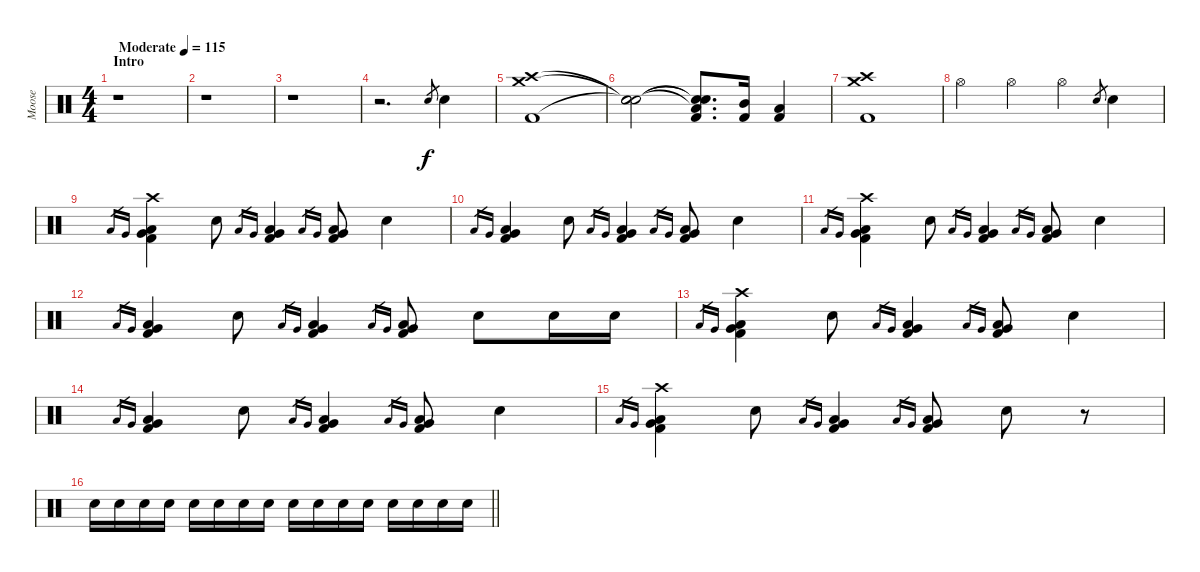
\track ("Moose" "Moose") {instrument percussion}
\staff {score}
\articulation defaults
\ts (4 4)
\section ("" "Intro")
\tempo (115 "Moderate")
\clef neutral
\ks c
r.1{dy f} |
r.1 |
r.1 |
r.2{d} "Electric Snare (hit)".8{gr} "Electric Snare (hit)".4 |
("Crash medium (hit)" "Crash high (hit)" "Kick (hit) 2").1 |
("Snare (hit)"{t} "Snare (hit)"{t} "Snare (hit)"{t}).2 ("Snare (hit)"{t} "Snare (hit)"{t} "Low Tom (hit)"{t} "Kick (hit) 2").8{d} ("Mid Tom (hit)" "Kick (hit) 2").16 ("Low Tom (hit)" "Kick (hit) 2").4 |
("Crash medium (hit)" "Crash high (hit)" "Kick (hit) 2").1 |
"Hi-Hat (open)".4 "Hi-Hat (open)".4 "Hi-Hat (open)".4 "Electric Snare (hit)".8{gr} "Electric Snare (hit)".4 |
"Low Tom (hit)".16{gr} "Very Low Tom (hit)".16{gr} ("Crash high (hit)" "Low Tom (hit)" "Very Low Tom (hit)" "Kick (hit) 2").4 "Electric Snare (hit)".8 "Low Tom (hit)".16{gr} "Very Low Tom (hit)".16{gr} ("Low Tom (hit)" "Very Low Tom (hit)" "Kick (hit) 2").4 "Low Tom (hit)".16{gr} "Very Low Tom (hit)".16{gr} ("Low Tom (hit)" "Very Low Tom (hit)" "Kick (hit) 2").8 "Electric Snare (hit)".4 |
"Low Tom (hit)".16{gr} "Very Low Tom (hit)".16{gr} ("Low Tom (hit)" "Very Low Tom (hit)" "Kick (hit) 2").4 "Electric Snare (hit)".8 "Low Tom (hit)".16{gr} "Very Low Tom (hit)".16{gr} ("Low Tom (hit)" "Very Low Tom (hit)" "Kick (hit) 2").4 "Low Tom (hit)".16{gr} "Very Low Tom (hit)".16{gr} ("Low Tom (hit)" "Very Low Tom (hit)" "Kick (hit) 2").8 "Electric Snare (hit)".4 |
"Low Tom (hit)".16{gr} "Very Low Tom (hit)".16{gr} ("Crash high (hit)" "Low Tom (hit)" "Very Low Tom (hit)" "Kick (hit) 2").4 "Electric Snare (hit)".8 "Low Tom (hit)".16{gr} "Very Low Tom (hit)".16{gr} ("Low Tom (hit)" "Very Low Tom (hit)" "Kick (hit) 2").4 "Low Tom (hit)".16{gr} "Very Low Tom (hit)".16{gr} ("Low Tom (hit)" "Very Low Tom (hit)" "Kick (hit) 2").8 "Electric Snare (hit)".4 |
"Low Tom (hit)".16{gr} "Very Low Tom (hit)".16{gr} ("Low Tom (hit)" "Very Low Tom (hit)" "Kick (hit) 2").4 "Electric Snare (hit)".8 "Low Tom (hit)".16{gr} "Very Low Tom (hit)".16{gr} ("Low Tom (hit)" "Very Low Tom (hit)" "Kick (hit) 2").4 "Low Tom (hit)".16{gr} "Very Low Tom (hit)".16{gr} ("Low Tom (hit)" "Very Low Tom (hit)" "Kick (hit) 2").8 "Electric Snare (hit)".8 "Electric Snare (hit)".16 "Electric Snare (hit)".16 |
"Low Tom (hit)".16{gr} "Very Low Tom (hit)".16{gr} ("Crash high (hit)" "Low Tom (hit)" "Very Low Tom (hit)" "Kick (hit) 2").4 "Electric Snare (hit)".8 "Low Tom (hit)".16{gr} "Very Low Tom (hit)".16{gr} ("Low Tom (hit)" "Very Low Tom (hit)" "Kick (hit) 2").4 "Low Tom (hit)".16{gr} "Very Low Tom (hit)".16{gr} ("Low Tom (hit)" "Very Low Tom (hit)" "Kick (hit) 2").8 "Electric Snare (hit)".4 |
"Low Tom (hit)".16{gr} "Very Low Tom (hit)".16{gr} ("Low Tom (hit)" "Very Low Tom (hit)" "Kick (hit) 2").4 "Electric Snare (hit)".8 "Low Tom (hit)".16{gr} "Very Low Tom (hit)".16{gr} ("Low Tom (hit)" "Very Low Tom (hit)" "Kick (hit) 2").4 "Low Tom (hit)".16{gr} "Very Low Tom (hit)".16{gr} ("Low Tom (hit)" "Very Low Tom (hit)" "Kick (hit) 2").8 "Electric Snare (hit)".4 |
"Low Tom (hit)".16{gr} "Very Low Tom (hit)".16{gr} ("Crash high (hit)" "Low Tom (hit)" "Very Low Tom (hit)" "Kick (hit) 2").4 "Electric Snare (hit)".8 "Low Tom (hit)".16{gr} "Very Low Tom (hit)".16{gr} ("Low Tom (hit)" "Very Low Tom (hit)" "Kick (hit) 2").4 "Low Tom (hit)".16{gr} "Very Low Tom (hit)".16{gr} ("Low Tom (hit)" "Very Low Tom (hit)" "Kick (hit) 2").8 "Electric Snare (hit)".8 r.8{volume 0} |
\barLineRight lightlight "Electric Snare (hit)".16{volume 16} "Electric Snare (hit)".16 "Electric Snare (hit)".16 "Electric Snare (hit)".16 "Electric Snare (hit)".16 "Electric Snare (hit)".16 "Electric Snare (hit)".16 "Electric Snare (hit)".16 "Electric Snare (hit)".16 "Electric Snare (hit)".16 "Electric Snare (hit)".16 "Electric Snare (hit)".16 "Electric Snare (hit)".16 "Electric Snare (hit)".16 "Electric Snare (hit)".16 "Electric Snare (hit)".16
